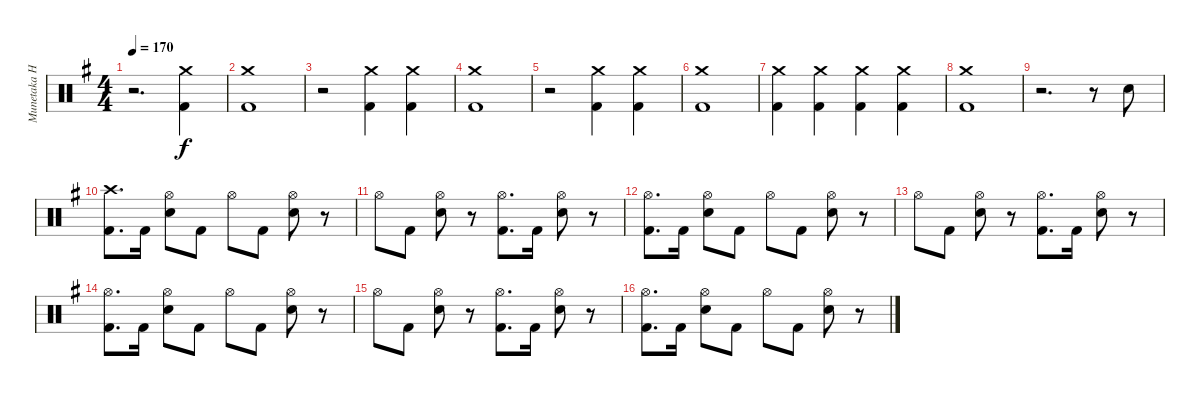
\track ("Munetaka Higuchi" "Munetaka H") {instrument percussion}
\staff {score}
\articulation defaults
\ts (4 4)
\tempo 170
\clef neutral
\ks eminor
r.2{d dy f} ("Crash medium (hit)" "Kick (hit) 2").4 |
("Crash medium (hit)" "Kick (hit) 2").1 |
r.2 ("Crash medium (hit)" "Kick (hit) 2").4 ("Crash medium (hit)" "Kick (hit) 2").4 |
("Crash medium (hit)" "Kick (hit) 2").1 |
r.2 ("Crash medium (hit)" "Kick (hit) 2").4 ("Crash medium (hit)" "Kick (hit) 2").4 |
("Crash medium (hit)" "Kick (hit) 2").1 |
("Crash medium (hit)" "Kick (hit) 2").4 ("Crash medium (hit)" "Kick (hit) 2").4 ("Crash medium (hit)" "Kick (hit) 2").4 ("Crash medium (hit)" "Kick (hit) 2").4 |
("Crash medium (hit)" "Kick (hit) 2").1 |
r.2{d} r.8 "Electric Snare (hit)".8 |
("Crash high (hit)" "Kick (hit) 2").8{d} "Kick (hit) 2".16 ("Hi-Hat (open)" "Electric Snare (hit)").8 "Kick (hit) 2".8 "Hi-Hat (open)".8 "Kick (hit) 2".8 ("Hi-Hat (open)" "Electric Snare (hit)").8 r.8 |
"Hi-Hat (open)".8 "Kick (hit) 2".8 ("Hi-Hat (open)" "Electric Snare (hit)").8 r.8 ("Hi-Hat (open)" "Kick (hit) 2").8{d} "Kick (hit) 2".16 ("Hi-Hat (open)" "Electric Snare (hit)").8 r.8 |
("Hi-Hat (open)" "Kick (hit) 2").8{d} "Kick (hit) 2".16 ("Hi-Hat (open)" "Electric Snare (hit)").8 "Kick (hit) 2".8 "Hi-Hat (open)".8 "Kick (hit) 2".8 ("Hi-Hat (open)" "Electric Snare (hit)").8 r.8 |
"Hi-Hat (open)".8 "Kick (hit) 2".8 ("Hi-Hat (open)" "Electric Snare (hit)").8 r.8 ("Hi-Hat (open)" "Kick (hit) 2").8{d} "Kick (hit) 2".16 ("Hi-Hat (open)" "Electric Snare (hit)").8 r.8 |
("Hi-Hat (open)" "Kick (hit) 2").8{d} "Kick (hit) 2".16 ("Hi-Hat (open)" "Electric Snare (hit)").8 "Kick (hit) 2".8 "Hi-Hat (open)".8 "Kick (hit) 2".8 ("Hi-Hat (open)" "Electric Snare (hit)").8 r.8 |
"Hi-Hat (open)".8 "Kick (hit) 2".8 ("Hi-Hat (open)" "Electric Snare (hit)").8 r.8 ("Hi-Hat (open)" "Kick (hit) 2").8{d} "Kick (hit) 2".16 ("Hi-Hat (open)" "Electric Snare (hit)").8 r.8 |
("Hi-Hat (open)" "Kick (hit) 2").8{d} "Kick (hit) 2".16 ("Hi-Hat (open)" "Electric Snare (hit)").8 "Kick (hit) 2".8 "Hi-Hat (open)".8 "Kick (hit) 2".8 ("Hi-Hat (open)" "Electric Snare (hit)").8 r.8
